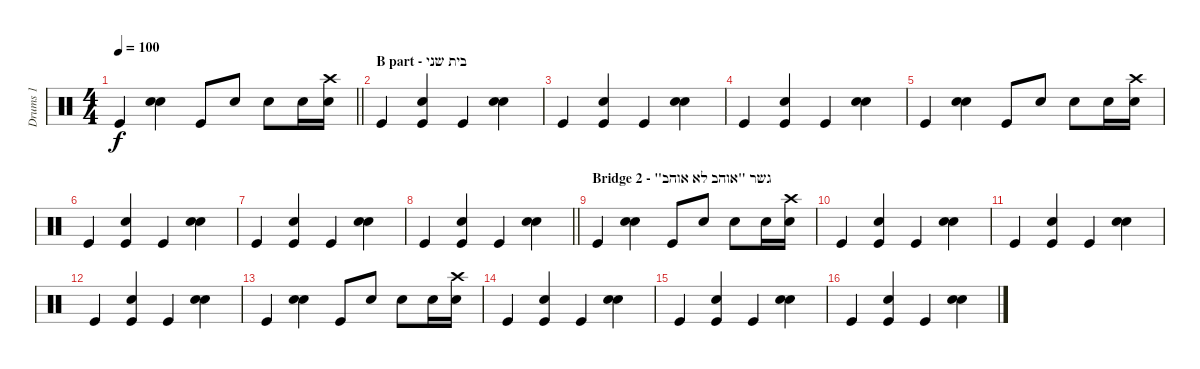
\track ("Drums 1" "Drums 1") {instrument percussion}
\staff {score}
\articulation defaults
\ts (4 4)
\tempo 100
\clef neutral
\barLineRight lightlight
\ks c "Kick (hit)".4{dy f}
("Electric Snare (hit)" "Snare (hit) 2").4 "Kick (hit)".8 "Electric Snare (hit)".8 "Electric Snare (hit)".8 "Electric Snare (hit)".16 ("Electric Snare (hit)" "Crash high (hit)").16 |
\section ("" "B part - בית שני")
"Kick (hit)".4 ("Electric Snare (hit)" "Kick (hit)").4 "Kick (hit)".4 ("Electric Snare (hit)" "Snare (hit) 2").4 |
"Kick (hit)".4 ("Electric Snare (hit)" "Kick (hit)").4 "Kick (hit)".4 ("Electric Snare (hit)" "Snare (hit) 2").4 |
"Kick (hit)".4 ("Electric Snare (hit)" "Kick (hit)").4 "Kick (hit)".4 ("Electric Snare (hit)" "Snare (hit) 2").4 |
"Kick (hit)".4 ("Electric Snare (hit)" "Snare (hit) 2").4 "Kick (hit)".8 "Electric Snare (hit)".8 "Electric Snare (hit)".8 "Electric Snare (hit)".16 ("Electric Snare (hit)" "Crash high (hit)").16 |
"Kick (hit)".4 ("Electric Snare (hit)" "Kick (hit)").4 "Kick (hit)".4 ("Electric Snare (hit)" "Snare (hit) 2").4 |
"Kick (hit)".4 ("Electric Snare (hit)" "Kick (hit)").4 "Kick (hit)".4 ("Electric Snare (hit)" "Snare (hit) 2").4 |
\barLineRight lightlight "Kick (hit)".4
("Electric Snare (hit)" "Kick (hit)").4 "Kick (hit)".4 ("Electric Snare (hit)" "Snare (hit) 2").4 |
\section ("" "Bridge 2 - \"גשר \"אוהב לא אוהב")
"Kick (hit)".4 ("Electric Snare (hit)" "Snare (hit) 2").4 "Kick (hit)".8 "Electric Snare (hit)".8 "Electric Snare (hit)".8 "Electric Snare (hit)".16 ("Electric Snare (hit)" "Crash high (hit)").16 |
"Kick (hit)".4 ("Electric Snare (hit)" "Kick (hit)").4 "Kick (hit)".4 ("Electric Snare (hit)" "Snare (hit) 2").4 |
"Kick (hit)".4 ("Electric Snare (hit)" "Kick (hit)").4 "Kick (hit)".4 ("Electric Snare (hit)" "Snare (hit) 2").4 |
"Kick (hit)".4 ("Electric Snare (hit)" "Kick (hit)").4 "Kick (hit)".4 ("Electric Snare (hit)" "Snare (hit) 2").4 |
"Kick (hit)".4 ("Electric Snare (hit)" "Snare (hit) 2").4 "Kick (hit)".8 "Electric Snare (hit)".8 "Electric Snare (hit)".8 "Electric Snare (hit)".16 ("Electric Snare (hit)" "Crash high (hit)").16 |
"Kick (hit)".4 ("Electric Snare (hit)" "Kick (hit)").4 "Kick (hit)".4 ("Electric Snare (hit)" "Snare (hit) 2").4 |
"Kick (hit)".4 ("Electric Snare (hit)" "Kick (hit)").4 "Kick (hit)".4 ("Electric Snare (hit)" "Snare (hit) 2").4 |
"Kick (hit)".4 ("Electric Snare (hit)" "Kick (hit)").4 "Kick (hit)".4 ("Electric Snare (hit)" "Snare (hit) 2").4
